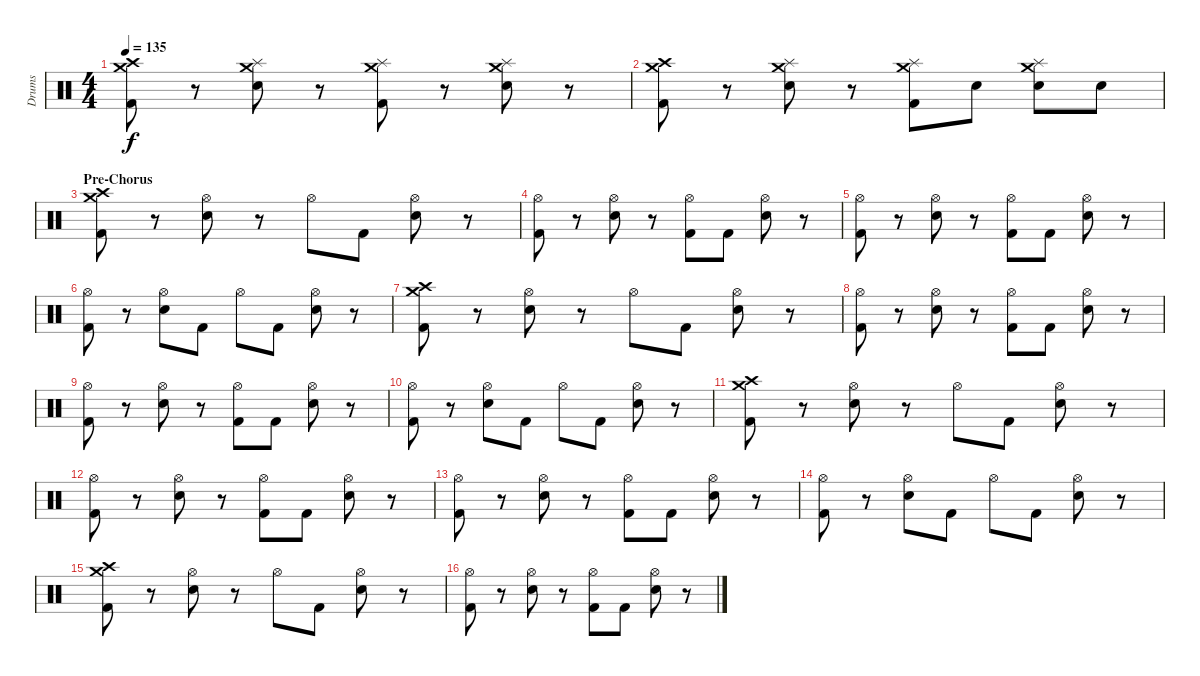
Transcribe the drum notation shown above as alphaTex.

\track ("Drums" "Drums") {instrument percussion}
\staff {score}
\articulation defaults
\ts (4 4)
\tempo 135
\clef neutral
\ks c
("Crash medium (hit)" "Crash high (hit)" "Kick (hit) 2").8{dy f} r.8 ("Splash (hit)" "Crash medium (hit)" "Snare (hit) 2").8 r.8 ("Splash (hit)" "Crash medium (hit)" "Kick (hit) 2").8 r.8 ("Splash (hit)" "Crash medium (hit)" "Snare (hit) 2").8 r.8 |
("Crash medium (hit)" "Crash high (hit)" "Kick (hit) 2").8 r.8 ("Splash (hit)" "Crash medium (hit)" "Snare (hit) 2").8 r.8 ("Splash (hit)" "Crash medium (hit)" "Kick (hit) 2").8 "Snare (hit) 2".8 ("Splash (hit)" "Crash medium (hit)" "Snare (hit) 2").8 "Snare (hit) 2".8 |
\section ("" "Pre-Chorus")
("Crash medium (hit)" "Crash high (hit)" "Kick (hit) 2").8 r.8 ("Hi-Hat (open)" "Snare (hit) 2").8 r.8 "Hi-Hat (open)".8 "Kick (hit) 2".8 ("Hi-Hat (open)" "Snare (hit) 2").8 r.8 |
("Hi-Hat (open)" "Kick (hit) 2").8 r.8 ("Hi-Hat (open)" "Snare (hit) 2").8 r.8 ("Hi-Hat (open)" "Kick (hit) 2").8 "Kick (hit) 2".8 ("Hi-Hat (open)" "Snare (hit) 2").8 r.8 |
("Hi-Hat (open)" "Kick (hit) 2").8 r.8 ("Hi-Hat (open)" "Snare (hit) 2").8 r.8 ("Hi-Hat (open)" "Kick (hit) 2").8 "Kick (hit) 2".8 ("Hi-Hat (open)" "Snare (hit) 2").8 r.8 |
("Hi-Hat (open)" "Kick (hit) 2").8 r.8 ("Hi-Hat (open)" "Snare (hit) 2").8 "Kick (hit) 2".8 "Hi-Hat (open)".8 "Kick (hit) 2".8 ("Hi-Hat (open)" "Snare (hit) 2").8 r.8 |
("Crash medium (hit)" "Crash high (hit)" "Kick (hit) 2").8 r.8 ("Hi-Hat (open)" "Snare (hit) 2").8 r.8 "Hi-Hat (open)".8 "Kick (hit) 2".8 ("Hi-Hat (open)" "Snare (hit) 2").8 r.8 |
("Hi-Hat (open)" "Kick (hit) 2").8 r.8 ("Hi-Hat (open)" "Snare (hit) 2").8 r.8 ("Hi-Hat (open)" "Kick (hit) 2").8 "Kick (hit) 2".8 ("Hi-Hat (open)" "Snare (hit) 2").8 r.8 |
("Hi-Hat (open)" "Kick (hit) 2").8 r.8 ("Hi-Hat (open)" "Snare (hit) 2").8 r.8 ("Hi-Hat (open)" "Kick (hit) 2").8 "Kick (hit) 2".8 ("Hi-Hat (open)" "Snare (hit) 2").8 r.8 |
("Hi-Hat (open)" "Kick (hit) 2").8 r.8 ("Hi-Hat (open)" "Snare (hit) 2").8 "Kick (hit) 2".8 "Hi-Hat (open)".8 "Kick (hit) 2".8 ("Hi-Hat (open)" "Snare (hit) 2").8 r.8 |
("Crash medium (hit)" "Crash high (hit)" "Kick (hit) 2").8 r.8 ("Hi-Hat (open)" "Snare (hit) 2").8 r.8 "Hi-Hat (open)".8 "Kick (hit) 2".8 ("Hi-Hat (open)" "Snare (hit) 2").8 r.8 |
("Hi-Hat (open)" "Kick (hit) 2").8 r.8 ("Hi-Hat (open)" "Snare (hit) 2").8 r.8 ("Hi-Hat (open)" "Kick (hit) 2").8 "Kick (hit) 2".8 ("Hi-Hat (open)" "Snare (hit) 2").8 r.8 |
("Hi-Hat (open)" "Kick (hit) 2").8 r.8 ("Hi-Hat (open)" "Snare (hit) 2").8 r.8 ("Hi-Hat (open)" "Kick (hit) 2").8 "Kick (hit) 2".8 ("Hi-Hat (open)" "Snare (hit) 2").8 r.8 |
("Hi-Hat (open)" "Kick (hit) 2").8 r.8 ("Hi-Hat (open)" "Snare (hit) 2").8 "Kick (hit) 2".8 "Hi-Hat (open)".8 "Kick (hit) 2".8 ("Hi-Hat (open)" "Snare (hit) 2").8 r.8 |
("Crash medium (hit)" "Crash high (hit)" "Kick (hit) 2").8 r.8 ("Hi-Hat (open)" "Snare (hit) 2").8 r.8 "Hi-Hat (open)".8 "Kick (hit) 2".8 ("Hi-Hat (open)" "Snare (hit) 2").8 r.8 |
("Hi-Hat (open)" "Kick (hit) 2").8 r.8 ("Hi-Hat (open)" "Snare (hit) 2").8 r.8 ("Hi-Hat (open)" "Kick (hit) 2").8 "Kick (hit) 2".8 ("Hi-Hat (open)" "Snare (hit) 2").8 r.8
